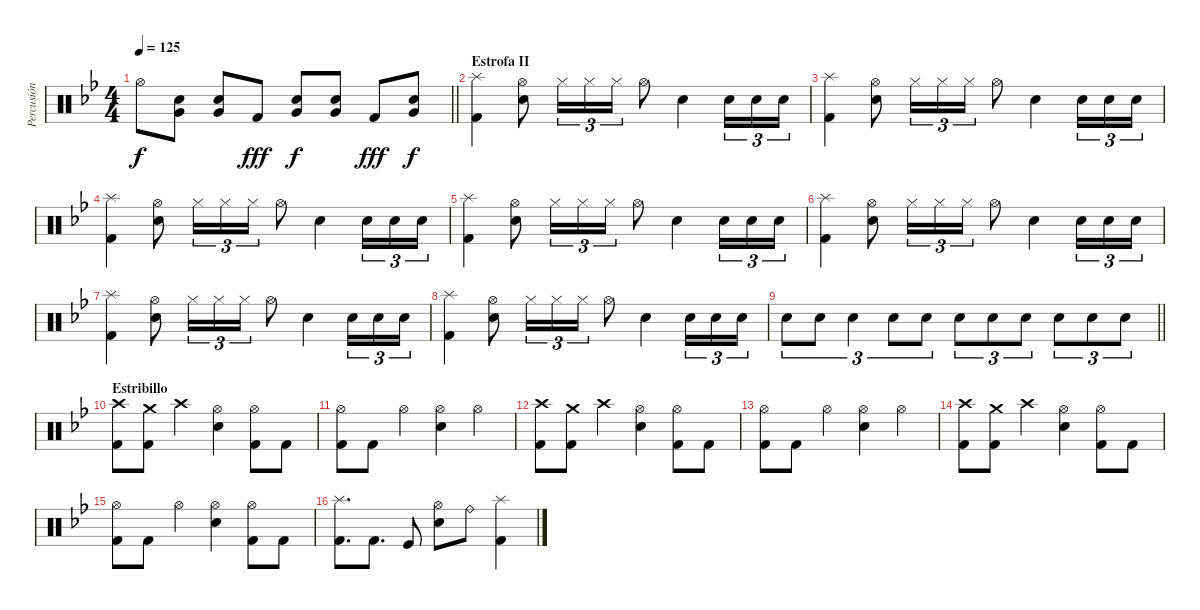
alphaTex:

\track ("Percusión" "Percusión") {instrument percussion}
\staff {score}
\articulation defaults
\ts (4 4)
\tempo 125
\clef neutral
\barLineRight lightlight
\ks gminor "Hi-Hat (open)".8{dy f}
("Snare (hit) 2" "Very Low Tom (hit)").8 ("Snare (hit) 2" "Very Low Tom (hit)").8 "Kick (hit) 2".8{dy fff} ("Snare (hit) 2" "Very Low Tom (hit)").8{dy f} ("Snare (hit) 2" "Very Low Tom (hit)").8 "Kick (hit) 2".8{dy fff} ("Snare (hit) 2" "Very Low Tom (hit)").8{dy f} |
\section ("" "Estrofa II")
("Splash (hit)" "Kick (hit) 2").4 ("Hi-Hat (open)" "Snare (hit) 2").8 "Hi-Hat (closed)".16{tu (3 2)} "Hi-Hat (closed)".16{tu (3 2)} "Hi-Hat (closed)".16{tu (3 2)} "Hi-Hat (open)".8 "Snare (hit) 2".4 "Snare (hit) 2".16{tu (3 2)} "Snare (hit) 2".16{tu (3 2)} "Snare (hit) 2".16{tu (3 2)} |
("Splash (hit)" "Kick (hit) 2").4 ("Hi-Hat (open)" "Snare (hit) 2").8 "Hi-Hat (closed)".16{tu (3 2)} "Hi-Hat (closed)".16{tu (3 2)} "Hi-Hat (closed)".16{tu (3 2)} "Hi-Hat (open)".8 "Snare (hit) 2".4 "Snare (hit) 2".16{tu (3 2)} "Snare (hit) 2".16{tu (3 2)} "Snare (hit) 2".16{tu (3 2)} |
("Splash (hit)" "Kick (hit) 2").4 ("Hi-Hat (open)" "Snare (hit) 2").8 "Hi-Hat (closed)".16{tu (3 2)} "Hi-Hat (closed)".16{tu (3 2)} "Hi-Hat (closed)".16{tu (3 2)} "Hi-Hat (open)".8 "Snare (hit) 2".4 "Snare (hit) 2".16{tu (3 2)} "Snare (hit) 2".16{tu (3 2)} "Snare (hit) 2".16{tu (3 2)} |
("Splash (hit)" "Kick (hit) 2").4 ("Hi-Hat (open)" "Snare (hit) 2").8 "Hi-Hat (closed)".16{tu (3 2)} "Hi-Hat (closed)".16{tu (3 2)} "Hi-Hat (closed)".16{tu (3 2)} "Hi-Hat (open)".8 "Snare (hit) 2".4 "Snare (hit) 2".16{tu (3 2)} "Snare (hit) 2".16{tu (3 2)} "Snare (hit) 2".16{tu (3 2)} |
("Splash (hit)" "Kick (hit) 2").4 ("Hi-Hat (open)" "Snare (hit) 2").8 "Hi-Hat (closed)".16{tu (3 2)} "Hi-Hat (closed)".16{tu (3 2)} "Hi-Hat (closed)".16{tu (3 2)} "Hi-Hat (open)".8 "Snare (hit) 2".4 "Snare (hit) 2".16{tu (3 2)} "Snare (hit) 2".16{tu (3 2)} "Snare (hit) 2".16{tu (3 2)} |
("Splash (hit)" "Kick (hit) 2").4 ("Hi-Hat (open)" "Snare (hit) 2").8 "Hi-Hat (closed)".16{tu (3 2)} "Hi-Hat (closed)".16{tu (3 2)} "Hi-Hat (closed)".16{tu (3 2)} "Hi-Hat (open)".8 "Snare (hit) 2".4 "Snare (hit) 2".16{tu (3 2)} "Snare (hit) 2".16{tu (3 2)} "Snare (hit) 2".16{tu (3 2)} |
("Splash (hit)" "Kick (hit) 2").4 ("Hi-Hat (open)" "Snare (hit) 2").8 "Hi-Hat (closed)".16{tu (3 2)} "Hi-Hat (closed)".16{tu (3 2)} "Hi-Hat (closed)".16{tu (3 2)} "Hi-Hat (open)".8 "Snare (hit) 2".4 "Snare (hit) 2".16{tu (3 2)} "Snare (hit) 2".16{tu (3 2)} "Snare (hit) 2".16{tu (3 2)} |
\barLineRight lightlight "Snare (hit) 2".8{tu (3 2)} "Snare (hit) 2".8{tu (3 2)} "Snare (hit) 2".4{tu (3 2)} "Snare (hit) 2".8{tu (3 2)} "Snare (hit) 2".8{tu (3 2)} "Snare (hit) 2".8{tu (3 2)} "Snare (hit) 2".8{tu (3 2)} "Snare (hit) 2".8{tu (3 2)} "Snare (hit) 2".8{tu (3 2)} "Snare (hit) 2".8{tu (3 2)} "Snare (hit) 2".8{tu (3 2)}
|
\section ("" "Estribillo")
("Crash high (hit)" "Kick (hit) 2").8 ("Crash medium (hit)" "Kick (hit) 2").8 "Crash high (hit)".4 ("Hi-Hat (open)" "Snare (hit) 2").4 ("Hi-Hat (open)" "Kick (hit) 2").8 "Kick (hit) 2".8 |
("Hi-Hat (open)" "Kick (hit) 2").8 "Kick (hit) 2".8 "Hi-Hat (open)".4 ("Hi-Hat (open)" "Snare (hit) 2").4 "Hi-Hat (open)".4 |
("Crash high (hit)" "Kick (hit) 2").8 ("Crash medium (hit)" "Kick (hit) 2").8 "Crash high (hit)".4 ("Hi-Hat (open)" "Snare (hit) 2").4 ("Hi-Hat (open)" "Kick (hit) 2").8 "Kick (hit) 2".8 |
("Hi-Hat (open)" "Kick (hit) 2").8 "Kick (hit) 2".8 "Hi-Hat (open)".4 ("Hi-Hat (open)" "Snare (hit) 2").4 "Hi-Hat (open)".4 |
("Crash high (hit)" "Kick (hit) 2").8 ("Crash medium (hit)" "Kick (hit) 2").8 "Crash high (hit)".4 ("Hi-Hat (open)" "Snare (hit) 2").4 ("Hi-Hat (open)" "Kick (hit) 2").8 "Kick (hit) 2".8 |
("Hi-Hat (open)" "Kick (hit) 2").8 "Kick (hit) 2".8 "Hi-Hat (open)".4 ("Hi-Hat (open)" "Snare (hit) 2").4 ("Hi-Hat (open)" "Kick (hit) 2").8 "Kick (hit) 2".8 |
("Splash (hit)" "Kick (hit) 2").8{d} "Kick (hit) 2".8{d} "Kick (hit)".8 ("Hi-Hat (open)" "Snare (hit) 2").8 "Ride (bell)".8 ("Splash (hit)" "Kick (hit) 2").4
